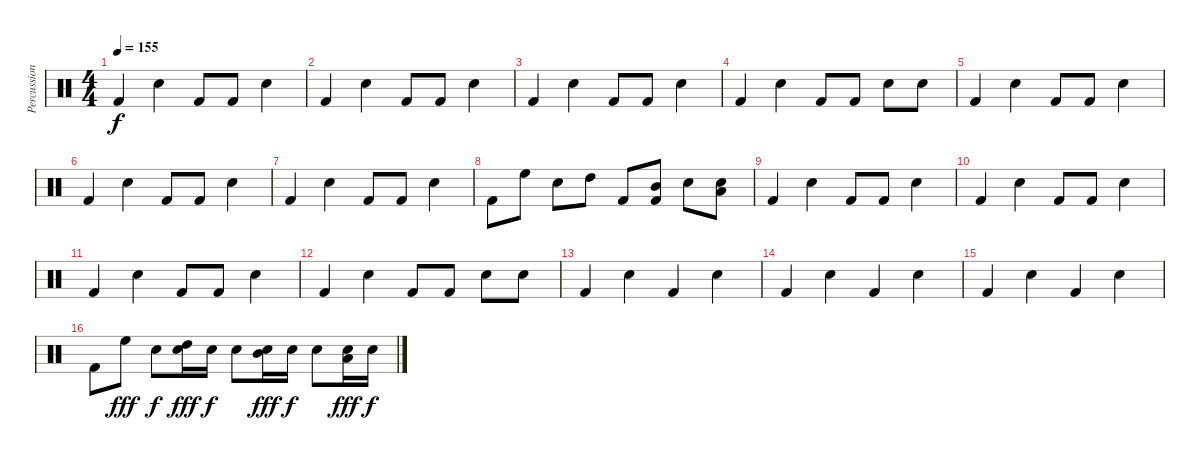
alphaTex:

\track ("Percussion" "Percussion") {instrument percussion}
\staff {score}
\articulation defaults
\ts (4 4)
\tempo 155
\clef neutral
\ks c "Kick (hit) 2".4{dy f} "Snare (hit) 2".4 "Kick (hit) 2".8 "Kick (hit) 2".8 "Snare (hit) 2".4
|
"Kick (hit) 2".4 "Snare (hit) 2".4 "Kick (hit) 2".8 "Kick (hit) 2".8 "Snare (hit) 2".4 |
"Kick (hit) 2".4 "Snare (hit) 2".4 "Kick (hit) 2".8 "Kick (hit) 2".8 "Snare (hit) 2".4 |
"Kick (hit) 2".4 "Snare (hit) 2".4 "Kick (hit) 2".8 "Kick (hit) 2".8 "Snare (hit) 2".8 "Snare (hit) 2".8 |
"Kick (hit) 2".4 "Snare (hit) 2".4 "Kick (hit) 2".8 "Kick (hit) 2".8 "Snare (hit) 2".4 |
"Kick (hit) 2".4 "Snare (hit) 2".4 "Kick (hit) 2".8 "Kick (hit) 2".8 "Snare (hit) 2".4 |
"Kick (hit) 2".4 "Snare (hit) 2".4 "Kick (hit) 2".8 "Kick (hit) 2".8 "Snare (hit) 2".4 |
"Kick (hit) 2".8 "High Floor Tom (hit)".8 "Snare (hit) 2".8 "High Tom (hit)".8 "Kick (hit) 2".8 ("Kick (hit) 2" "Mid Tom (hit)").8 "Snare (hit) 2".8 ("Snare (hit) 2" "Low Tom (hit)").8 |
"Kick (hit) 2".4 "Snare (hit) 2".4 "Kick (hit) 2".8 "Kick (hit) 2".8 "Snare (hit) 2".4 |
"Kick (hit) 2".4 "Snare (hit) 2".4 "Kick (hit) 2".8 "Kick (hit) 2".8 "Snare (hit) 2".4 |
"Kick (hit) 2".4 "Snare (hit) 2".4 "Kick (hit) 2".8 "Kick (hit) 2".8 "Snare (hit) 2".4 |
"Kick (hit) 2".4 "Snare (hit) 2".4 "Kick (hit) 2".8 "Kick (hit) 2".8 "Snare (hit) 2".8 "Snare (hit) 2".8 |
"Kick (hit) 2".4 "Snare (hit) 2".4 "Kick (hit) 2".4 "Snare (hit) 2".4 |
"Kick (hit) 2".4 "Snare (hit) 2".4 "Kick (hit) 2".4 "Snare (hit) 2".4 |
"Kick (hit) 2".4 "Snare (hit) 2".4 "Kick (hit) 2".4 "Snare (hit) 2".4 |
"Kick (hit) 2".8 "High Floor Tom (hit)".8{dy fff} "Snare (hit) 2".8{dy f} ("Snare (hit) 2" "High Tom (hit)").16{dy fff} "Snare (hit) 2".16{dy f} "Snare (hit) 2".8 ("Snare (hit) 2" "Mid Tom (hit)").16{dy fff} "Snare (hit) 2".16{dy f} "Snare (hit) 2".8 ("Snare (hit) 2" "Low Tom (hit)").16{dy fff} "Snare (hit) 2".16{dy f}
